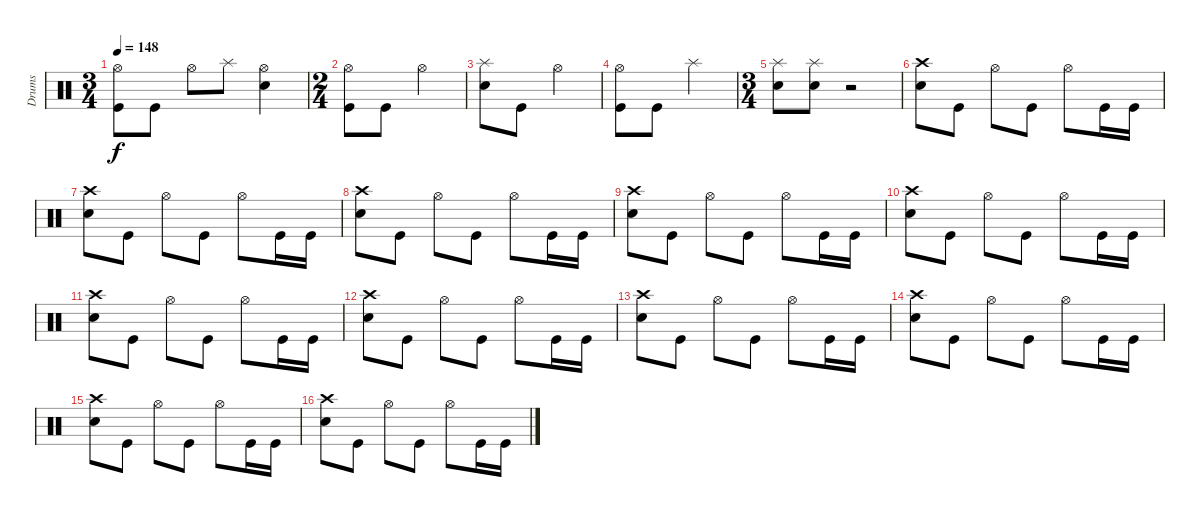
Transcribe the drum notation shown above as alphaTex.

\track ("Drums" "Drums") {instrument percussion}
\staff {score}
\articulation defaults
\ts (3 4)
\tempo 148
\clef neutral
\ks c
("Hi-Hat (open)" "Kick (hit)").8{dy f} "Kick (hit)".8 "Hi-Hat (open)".8 "Splash (hit)".8 ("Hi-Hat (open)" "Snare (hit) 2").4 |
\ts (2 4)
("Hi-Hat (open)" "Kick (hit)").8 "Kick (hit)".8 "Hi-Hat (open)".4 |
("Splash (hit)" "Snare (hit) 2").8 "Kick (hit)".8 "Hi-Hat (open)".4 |
("Hi-Hat (open)" "Kick (hit)").8 "Kick (hit)".8 "Splash (hit)".4 |
\ts (3 4)
("Snare (hit) 2" "Splash (hit)").8 ("Snare (hit) 2" "Splash (hit)").8 r.2 |
("Crash high (hit)" "Snare (hit) 2").8 "Kick (hit)".8 "Hi-Hat (open)".8 "Kick (hit)".8 "Hi-Hat (open)".8 "Kick (hit)".16 "Kick (hit)".16 |
("Crash high (hit)" "Snare (hit) 2").8 "Kick (hit)".8 "Hi-Hat (open)".8 "Kick (hit)".8 "Hi-Hat (open)".8 "Kick (hit)".16 "Kick (hit)".16 |
("Crash high (hit)" "Snare (hit) 2").8 "Kick (hit)".8 "Hi-Hat (open)".8 "Kick (hit)".8 "Hi-Hat (open)".8 "Kick (hit)".16 "Kick (hit)".16 |
("Crash high (hit)" "Snare (hit) 2").8 "Kick (hit)".8 "Hi-Hat (open)".8 "Kick (hit)".8 "Hi-Hat (open)".8 "Kick (hit)".16 "Kick (hit)".16 |
("Crash high (hit)" "Snare (hit) 2").8 "Kick (hit)".8 "Hi-Hat (open)".8 "Kick (hit)".8 "Hi-Hat (open)".8 "Kick (hit)".16 "Kick (hit)".16 |
("Crash high (hit)" "Snare (hit) 2").8 "Kick (hit)".8 "Hi-Hat (open)".8 "Kick (hit)".8 "Hi-Hat (open)".8 "Kick (hit)".16 "Kick (hit)".16 |
("Crash high (hit)" "Snare (hit) 2").8 "Kick (hit)".8 "Hi-Hat (open)".8 "Kick (hit)".8 "Hi-Hat (open)".8 "Kick (hit)".16 "Kick (hit)".16 |
("Crash high (hit)" "Snare (hit) 2").8 "Kick (hit)".8 "Hi-Hat (open)".8 "Kick (hit)".8 "Hi-Hat (open)".8 "Kick (hit)".16 "Kick (hit)".16 |
("Crash high (hit)" "Snare (hit) 2").8 "Kick (hit)".8 "Hi-Hat (open)".8 "Kick (hit)".8 "Hi-Hat (open)".8 "Kick (hit)".16 "Kick (hit)".16 |
("Crash high (hit)" "Snare (hit) 2").8 "Kick (hit)".8 "Hi-Hat (open)".8 "Kick (hit)".8 "Hi-Hat (open)".8 "Kick (hit)".16 "Kick (hit)".16 |
("Crash high (hit)" "Snare (hit) 2").8 "Kick (hit)".8 "Hi-Hat (open)".8 "Kick (hit)".8 "Hi-Hat (open)".8 "Kick (hit)".16 "Kick (hit)".16
